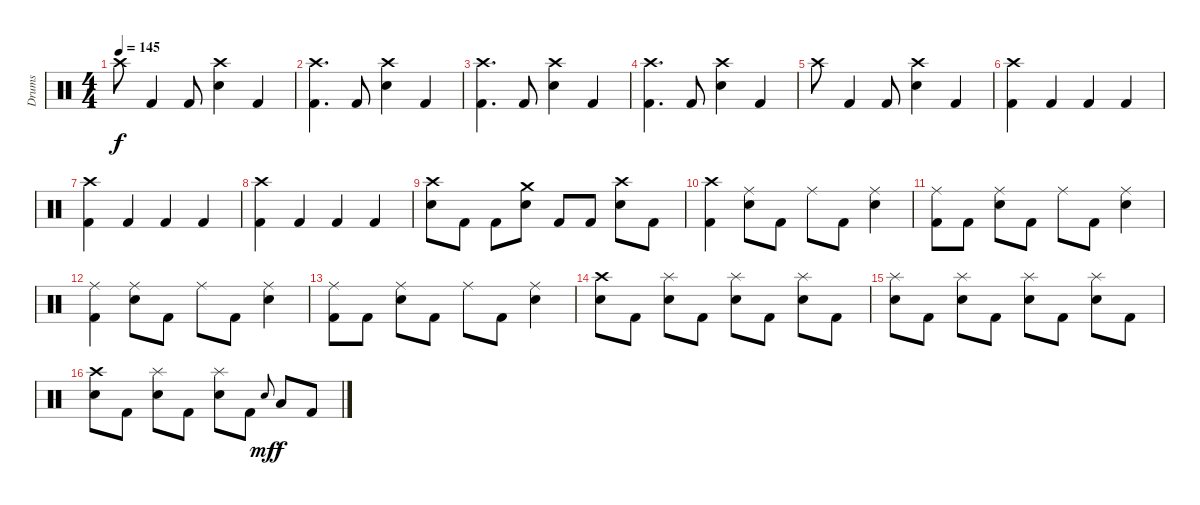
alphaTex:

\track ("Drums" "Drums") {instrument percussion}
\staff {score}
\articulation defaults
\ts (4 4)
\tempo 145
\clef neutral
\ks c "Crash high (hit)".8{dy f} "Kick (hit) 2".4 "Kick (hit) 2".8
("Crash high (hit)" "Snare (hit) 2").4 "Kick (hit) 2".4 |
("Crash high (hit)" "Kick (hit) 2").4{d} "Kick (hit) 2".8 ("Crash high (hit)" "Snare (hit) 2").4 "Kick (hit) 2".4 |
("Crash high (hit)" "Kick (hit) 2").4{d} "Kick (hit) 2".8 ("Crash high (hit)" "Snare (hit) 2").4 "Kick (hit) 2".4 |
("Crash high (hit)" "Kick (hit) 2").4{d} "Kick (hit) 2".8 ("Crash high (hit)" "Snare (hit) 2").4 "Kick (hit) 2".4 |
"Crash high (hit)".8 "Kick (hit) 2".4 "Kick (hit) 2".8 ("Crash high (hit)" "Snare (hit) 2").4 "Kick (hit) 2".4 |
("Crash high (hit)" "Kick (hit) 2").4 "Kick (hit) 2".4 "Kick (hit) 2".4 "Kick (hit) 2".4 |
("Crash high (hit)" "Kick (hit) 2").4 "Kick (hit) 2".4 "Kick (hit) 2".4 "Kick (hit) 2".4 |
("Crash high (hit)" "Kick (hit) 2").4 "Kick (hit) 2".4 "Kick (hit) 2".4 "Kick (hit) 2".4 |
("Crash high (hit)" "Snare (hit) 2").8 "Kick (hit) 2".8 "Kick (hit) 2".8 ("Crash medium (hit)" "Snare (hit) 2").8 "Kick (hit) 2".8 "Kick (hit) 2".8 ("Crash high (hit)" "Snare (hit) 2").8 "Kick (hit) 2".8 |
("Crash high (hit)" "Kick (hit) 2").4 ("Ride (middle)" "Snare (hit) 2").8 "Kick (hit) 2".8 "Ride (middle)".8 "Kick (hit) 2".8 ("Ride (middle)" "Snare (hit) 2").4 |
("Ride (middle)" "Kick (hit) 2").8 "Kick (hit) 2".8 ("Ride (middle)" "Snare (hit) 2").8 "Kick (hit) 2".8 "Ride (middle)".8 "Kick (hit) 2".8 ("Ride (middle)" "Snare (hit) 2").4 |
("Ride (middle)" "Kick (hit) 2").4 ("Ride (middle)" "Snare (hit) 2").8 "Kick (hit) 2".8 "Ride (middle)".8 "Kick (hit) 2".8 ("Ride (middle)" "Snare (hit) 2").4 |
("Ride (middle)" "Kick (hit) 2").8 "Kick (hit) 2".8 ("Ride (middle)" "Snare (hit) 2").8 "Kick (hit) 2".8 "Ride (middle)".8 "Kick (hit) 2".8 ("Ride (middle)" "Snare (hit) 2").4 |
("Crash high (hit)" "Snare (hit) 2").8 "Kick (hit) 2".8 ("Splash (hit)" "Snare (hit) 2").8 "Kick (hit) 2".8 ("Splash (hit)" "Snare (hit) 2").8 "Kick (hit) 2".8 ("Splash (hit)" "Snare (hit) 2").8 "Kick (hit) 2".8 |
("Splash (hit)" "Snare (hit) 2").8 "Kick (hit) 2".8 ("Splash (hit)" "Snare (hit) 2").8 "Kick (hit) 2".8 ("Splash (hit)" "Snare (hit) 2").8 "Kick (hit) 2".8 ("Splash (hit)" "Snare (hit) 2").8 "Kick (hit) 2".8 |
("Crash high (hit)" "Snare (hit) 2").8 "Kick (hit) 2".8 ("Splash (hit)" "Snare (hit) 2").8 "Kick (hit) 2".8 ("Splash (hit)" "Snare (hit) 2").8 "Kick (hit) 2".8 "Snare (hit)".8{gr onbeat dy mf} "Low Tom (hit)".8{dy f} "Kick (hit) 2".8
